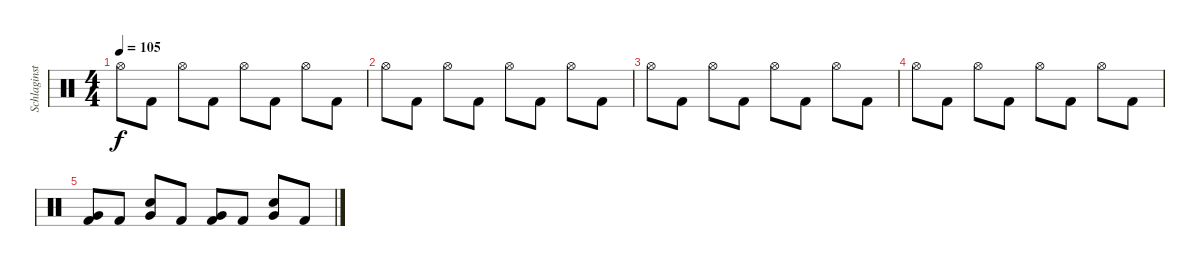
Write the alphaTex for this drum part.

\track ("Schlaginstrumente - Auswahl" "Schlaginst") {instrument percussion}
\staff {score}
\articulation defaults
\ts (4 4)
\tempo 105
\clef neutral
\ks c "Hi-Hat (open)".8{dy f} "Kick (hit) 2".8 "Hi-Hat (open)".8 "Kick (hit) 2".8 "Hi-Hat (open)".8 "Kick (hit) 2".8 "Hi-Hat (open)".8 "Kick (hit) 2".8
|
"Hi-Hat (open)".8 "Kick (hit) 2".8 "Hi-Hat (open)".8 "Kick (hit) 2".8 "Hi-Hat (open)".8 "Kick (hit) 2".8 "Hi-Hat (open)".8 "Kick (hit) 2".8 |
"Hi-Hat (open)".8 "Kick (hit) 2".8 "Hi-Hat (open)".8 "Kick (hit) 2".8 "Hi-Hat (open)".8 "Kick (hit) 2".8 "Hi-Hat (open)".8 "Kick (hit) 2".8 |
"Hi-Hat (open)".8 "Kick (hit) 2".8 "Hi-Hat (open)".8 "Kick (hit) 2".8 "Hi-Hat (open)".8 "Kick (hit) 2".8 "Hi-Hat (open)".8 "Kick (hit) 2".8 |
("Very Low Tom (hit)" "Kick (hit) 2").8 "Kick (hit) 2".8 ("Very Low Tom (hit)" "Electric Snare (hit)").8 "Kick (hit) 2".8 ("Very Low Tom (hit)" "Kick (hit) 2").8 "Kick (hit) 2".8 ("Very Low Tom (hit)" "Electric Snare (hit)").8 "Kick (hit) 2".8
